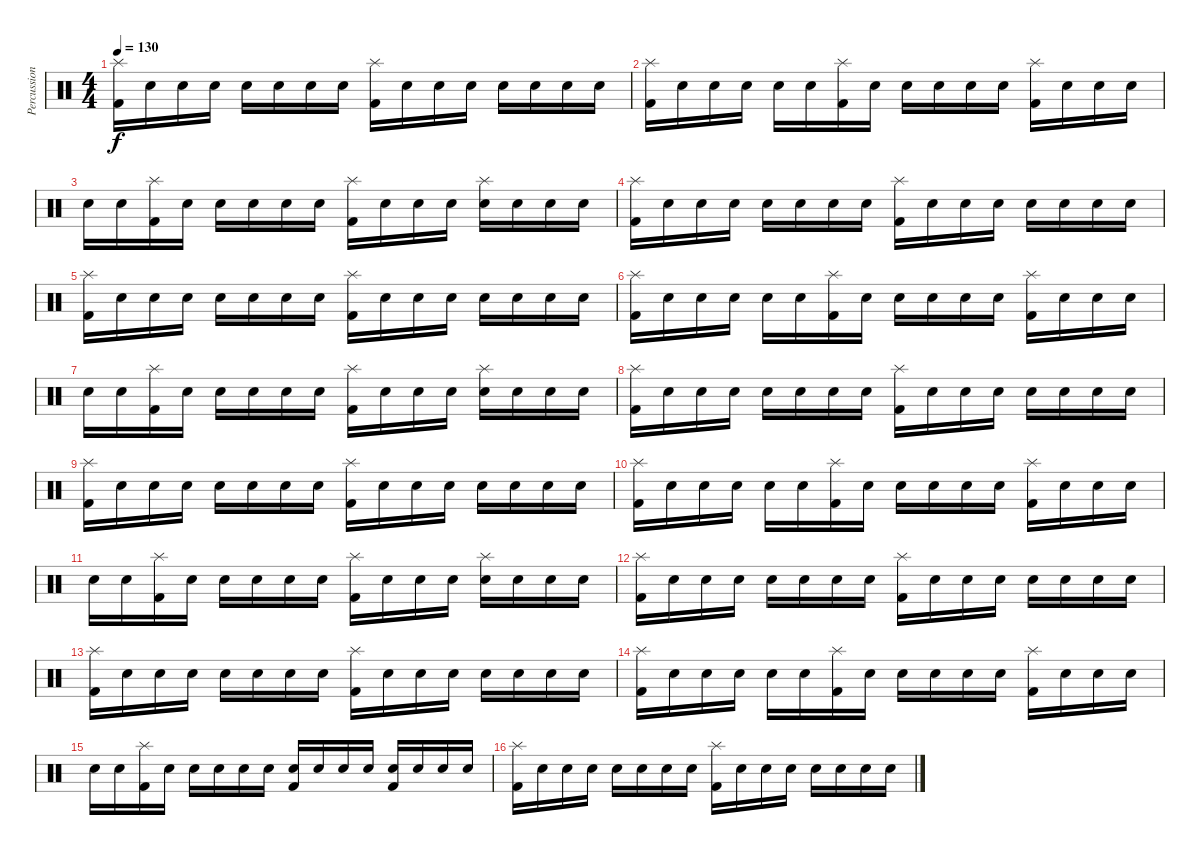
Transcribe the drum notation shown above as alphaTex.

\track ("Percussion" "Percussion") {instrument percussion}
\staff {score}
\articulation defaults
\ts (4 4)
\tempo 130
\clef neutral
\ks c
("Kick (hit) 2" "Splash (hit)").16{dy f} "Snare (hit) 2".16 "Snare (hit) 2".16 "Snare (hit) 2".16 "Snare (hit) 2".16 "Snare (hit) 2".16 "Snare (hit) 2".16 "Snare (hit) 2".16 ("Kick (hit) 2" "Splash (hit)").16 "Snare (hit) 2".16 "Snare (hit) 2".16 "Snare (hit) 2".16 "Snare (hit) 2".16 "Snare (hit) 2".16 "Snare (hit) 2".16 "Snare (hit) 2".16 |
("Kick (hit) 2" "Splash (hit)").16 "Snare (hit) 2".16 "Snare (hit) 2".16 "Snare (hit) 2".16 "Snare (hit) 2".16 "Snare (hit) 2".16 ("Kick (hit) 2" "Splash (hit)").16 "Snare (hit) 2".16 "Snare (hit) 2".16 "Snare (hit) 2".16 "Snare (hit) 2".16 "Snare (hit) 2".16 ("Kick (hit) 2" "Splash (hit)").16 "Snare (hit) 2".16 "Snare (hit) 2".16 "Snare (hit) 2".16 |
"Snare (hit) 2".16 "Snare (hit) 2".16 ("Kick (hit) 2" "Splash (hit)").16 "Snare (hit) 2".16 "Snare (hit) 2".16 "Snare (hit) 2".16 "Snare (hit) 2".16 "Snare (hit) 2".16 ("Kick (hit) 2" "Splash (hit)").16 "Snare (hit) 2".16 "Snare (hit) 2".16 "Snare (hit) 2".16 ("Snare (hit) 2" "Splash (hit)").16 "Snare (hit) 2".16 "Snare (hit) 2".16 "Snare (hit) 2".16 |
("Kick (hit) 2" "Splash (hit)").16 "Snare (hit) 2".16 "Snare (hit) 2".16 "Snare (hit) 2".16 "Snare (hit) 2".16 "Snare (hit) 2".16 "Snare (hit) 2".16 "Snare (hit) 2".16 ("Kick (hit) 2" "Splash (hit)").16 "Snare (hit) 2".16 "Snare (hit) 2".16 "Snare (hit) 2".16 "Snare (hit) 2".16 "Snare (hit) 2".16 "Snare (hit) 2".16 "Snare (hit) 2".16 |
("Kick (hit) 2" "Splash (hit)").16 "Snare (hit) 2".16 "Snare (hit) 2".16 "Snare (hit) 2".16 "Snare (hit) 2".16 "Snare (hit) 2".16 "Snare (hit) 2".16 "Snare (hit) 2".16 ("Kick (hit) 2" "Splash (hit)").16 "Snare (hit) 2".16 "Snare (hit) 2".16 "Snare (hit) 2".16 "Snare (hit) 2".16 "Snare (hit) 2".16 "Snare (hit) 2".16 "Snare (hit) 2".16 |
("Kick (hit) 2" "Splash (hit)").16 "Snare (hit) 2".16 "Snare (hit) 2".16 "Snare (hit) 2".16 "Snare (hit) 2".16 "Snare (hit) 2".16 ("Kick (hit) 2" "Splash (hit)").16 "Snare (hit) 2".16 "Snare (hit) 2".16 "Snare (hit) 2".16 "Snare (hit) 2".16 "Snare (hit) 2".16 ("Kick (hit) 2" "Splash (hit)").16 "Snare (hit) 2".16 "Snare (hit) 2".16 "Snare (hit) 2".16 |
"Snare (hit) 2".16 "Snare (hit) 2".16 ("Kick (hit) 2" "Splash (hit)").16 "Snare (hit) 2".16 "Snare (hit) 2".16 "Snare (hit) 2".16 "Snare (hit) 2".16 "Snare (hit) 2".16 ("Kick (hit) 2" "Splash (hit)").16 "Snare (hit) 2".16 "Snare (hit) 2".16 "Snare (hit) 2".16 ("Snare (hit) 2" "Splash (hit)").16 "Snare (hit) 2".16 "Snare (hit) 2".16 "Snare (hit) 2".16 |
("Kick (hit) 2" "Splash (hit)").16 "Snare (hit) 2".16 "Snare (hit) 2".16 "Snare (hit) 2".16 "Snare (hit) 2".16 "Snare (hit) 2".16 "Snare (hit) 2".16 "Snare (hit) 2".16 ("Kick (hit) 2" "Splash (hit)").16 "Snare (hit) 2".16 "Snare (hit) 2".16 "Snare (hit) 2".16 "Snare (hit) 2".16 "Snare (hit) 2".16 "Snare (hit) 2".16 "Snare (hit) 2".16 |
("Kick (hit) 2" "Splash (hit)").16 "Snare (hit) 2".16 "Snare (hit) 2".16 "Snare (hit) 2".16 "Snare (hit) 2".16 "Snare (hit) 2".16 "Snare (hit) 2".16 "Snare (hit) 2".16 ("Kick (hit) 2" "Splash (hit)").16 "Snare (hit) 2".16 "Snare (hit) 2".16 "Snare (hit) 2".16 "Snare (hit) 2".16 "Snare (hit) 2".16 "Snare (hit) 2".16 "Snare (hit) 2".16 |
("Kick (hit) 2" "Splash (hit)").16 "Snare (hit) 2".16 "Snare (hit) 2".16 "Snare (hit) 2".16 "Snare (hit) 2".16 "Snare (hit) 2".16 ("Kick (hit) 2" "Splash (hit)").16 "Snare (hit) 2".16 "Snare (hit) 2".16 "Snare (hit) 2".16 "Snare (hit) 2".16 "Snare (hit) 2".16 ("Kick (hit) 2" "Splash (hit)").16 "Snare (hit) 2".16 "Snare (hit) 2".16 "Snare (hit) 2".16 |
"Snare (hit) 2".16 "Snare (hit) 2".16 ("Kick (hit) 2" "Splash (hit)").16 "Snare (hit) 2".16 "Snare (hit) 2".16 "Snare (hit) 2".16 "Snare (hit) 2".16 "Snare (hit) 2".16 ("Kick (hit) 2" "Splash (hit)").16 "Snare (hit) 2".16 "Snare (hit) 2".16 "Snare (hit) 2".16 ("Snare (hit) 2" "Splash (hit)").16 "Snare (hit) 2".16 "Snare (hit) 2".16 "Snare (hit) 2".16 |
("Kick (hit) 2" "Splash (hit)").16 "Snare (hit) 2".16 "Snare (hit) 2".16 "Snare (hit) 2".16 "Snare (hit) 2".16 "Snare (hit) 2".16 "Snare (hit) 2".16 "Snare (hit) 2".16 ("Kick (hit) 2" "Splash (hit)").16 "Snare (hit) 2".16 "Snare (hit) 2".16 "Snare (hit) 2".16 "Snare (hit) 2".16 "Snare (hit) 2".16 "Snare (hit) 2".16 "Snare (hit) 2".16 |
("Kick (hit) 2" "Splash (hit)").16 "Snare (hit) 2".16 "Snare (hit) 2".16 "Snare (hit) 2".16 "Snare (hit) 2".16 "Snare (hit) 2".16 "Snare (hit) 2".16 "Snare (hit) 2".16 ("Kick (hit) 2" "Splash (hit)").16 "Snare (hit) 2".16 "Snare (hit) 2".16 "Snare (hit) 2".16 "Snare (hit) 2".16 "Snare (hit) 2".16 "Snare (hit) 2".16 "Snare (hit) 2".16 |
("Kick (hit) 2" "Splash (hit)").16 "Snare (hit) 2".16 "Snare (hit) 2".16 "Snare (hit) 2".16 "Snare (hit) 2".16 "Snare (hit) 2".16 ("Kick (hit) 2" "Splash (hit)").16 "Snare (hit) 2".16 "Snare (hit) 2".16 "Snare (hit) 2".16 "Snare (hit) 2".16 "Snare (hit) 2".16 ("Kick (hit) 2" "Splash (hit)").16 "Snare (hit) 2".16 "Snare (hit) 2".16 "Snare (hit) 2".16 |
"Snare (hit) 2".16 "Snare (hit) 2".16 ("Kick (hit) 2" "Splash (hit)").16 "Snare (hit) 2".16 "Snare (hit) 2".16 "Snare (hit) 2".16 "Snare (hit) 2".16 "Snare (hit) 2".16 ("Snare (hit) 2" "Kick (hit) 2").16 "Snare (hit) 2".16 "Snare (hit) 2".16 "Snare (hit) 2".16 ("Snare (hit) 2" "Kick (hit) 2").16 "Snare (hit) 2".16 "Snare (hit) 2".16 "Snare (hit) 2".16 |
("Kick (hit) 2" "Splash (hit)").16 "Snare (hit) 2".16 "Snare (hit) 2".16 "Snare (hit) 2".16 "Snare (hit) 2".16 "Snare (hit) 2".16 "Snare (hit) 2".16 "Snare (hit) 2".16 ("Kick (hit) 2" "Splash (hit)").16 "Snare (hit) 2".16 "Snare (hit) 2".16 "Snare (hit) 2".16 "Snare (hit) 2".16 "Snare (hit) 2".16 "Snare (hit) 2".16 "Snare (hit) 2".16
